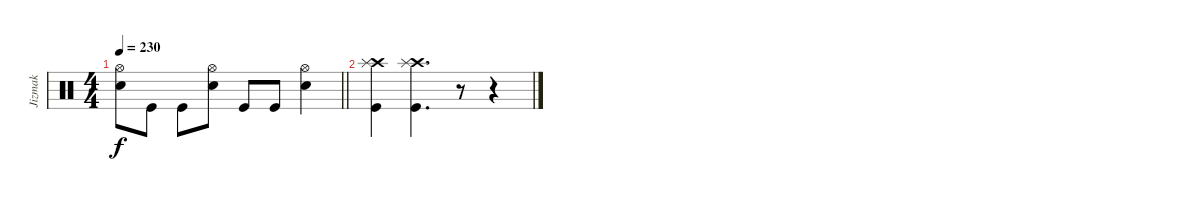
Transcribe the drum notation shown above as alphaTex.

\track ("Jizmak" "Jizmak") {instrument percussion}
\staff {score}
\articulation defaults
\ts (4 4)
\tempo 230
\clef neutral
\barLineRight lightlight
\ks c
("Hi-Hat (open)" "Snare (hit) 2").8{dy f} "Kick (hit)".8 "Kick (hit)".8 ("Hi-Hat (open)" "Snare (hit) 2").8 "Kick (hit)".8 "Kick (hit)".8 ("Hi-Hat (open)" "Snare (hit) 2").4 |
("Crash high (hit)" "Splash (hit)" "Kick (hit)").4 ("Crash high (hit)" "Splash (hit)" "Kick (hit)").4{d} r.8 r.4
